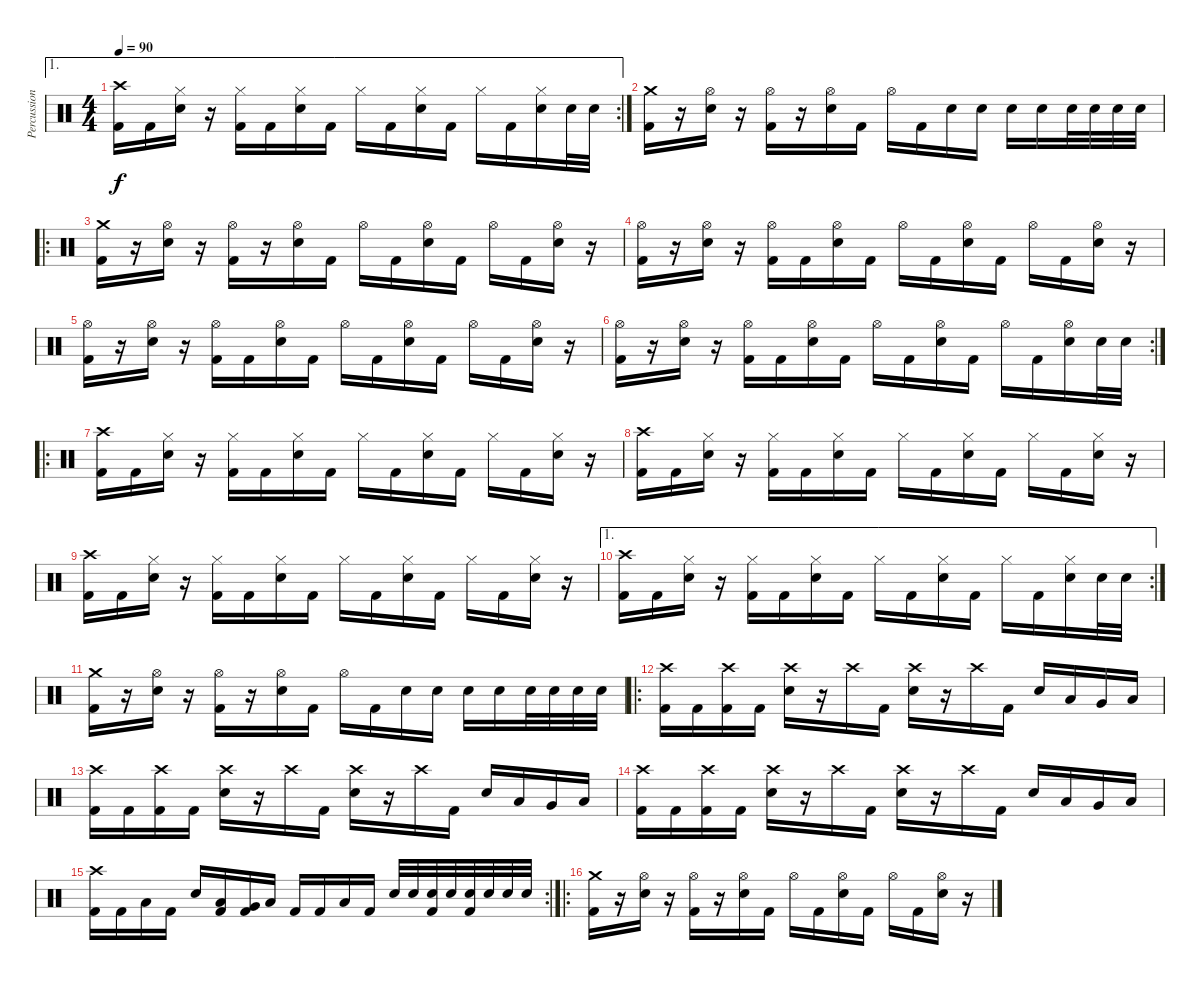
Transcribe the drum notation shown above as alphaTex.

\track ("Percussion" "Percussion") {instrument percussion}
\staff {score}
\articulation defaults
\ae 1
\rc 2
\ts (4 4)
\tempo 90
\clef neutral
\ks c
("Kick (hit) 2" "Crash high (hit)").16{dy f} "Kick (hit) 2".16 ("Snare (hit) 2" "Hi-Hat (closed)").16 r.16 ("Kick (hit) 2" "Hi-Hat (closed)").16 "Kick (hit) 2".16 ("Snare (hit) 2" "Hi-Hat (closed)").16 "Kick (hit) 2".16 "Hi-Hat (closed)".16 "Kick (hit) 2".16 ("Snare (hit) 2" "Hi-Hat (closed)").16 "Kick (hit) 2".16 "Hi-Hat (closed)".16 "Kick (hit) 2".16 ("Snare (hit) 2" "Hi-Hat (closed)").16 "Snare (hit) 2".32 "Snare (hit) 2".32 |
("Kick (hit) 2" "Crash medium (hit)").16 r.16 ("Snare (hit) 2" "Hi-Hat (open)").16 r.16 ("Kick (hit) 2" "Hi-Hat (open)").16 r.16 ("Snare (hit) 2" "Hi-Hat (open)").16 "Kick (hit) 2".16 "Hi-Hat (open)".16 "Kick (hit) 2".16 "Snare (hit) 2".16 "Snare (hit) 2".16 "Snare (hit) 2".16 "Snare (hit) 2".16 "Snare (hit) 2".32 "Snare (hit) 2".32 "Snare (hit) 2".32 "Snare (hit) 2".32 |
\ro
("Kick (hit) 2" "Crash medium (hit)").16 r.16 ("Snare (hit) 2" "Hi-Hat (open)").16 r.16 ("Kick (hit) 2" "Hi-Hat (open)").16 r.16 ("Snare (hit) 2" "Hi-Hat (open)").16 "Kick (hit) 2".16 "Hi-Hat (open)".16 "Kick (hit) 2".16 ("Snare (hit) 2" "Hi-Hat (open)").16 "Kick (hit) 2".16 "Hi-Hat (open)".16 "Kick (hit) 2".16 ("Snare (hit) 2" "Hi-Hat (open)").16 r.16 |
("Kick (hit) 2" "Hi-Hat (open)").16 r.16 ("Snare (hit) 2" "Hi-Hat (open)").16 r.16 ("Kick (hit) 2" "Hi-Hat (open)").16 "Kick (hit) 2".16 ("Snare (hit) 2" "Hi-Hat (open)").16 "Kick (hit) 2".16 "Hi-Hat (open)".16 "Kick (hit) 2".16 ("Snare (hit) 2" "Hi-Hat (open)").16 "Kick (hit) 2".16 "Hi-Hat (open)".16 "Kick (hit) 2".16 ("Snare (hit) 2" "Hi-Hat (open)").16 r.16 |
("Kick (hit) 2" "Hi-Hat (open)").16 r.16 ("Snare (hit) 2" "Hi-Hat (open)").16 r.16 ("Kick (hit) 2" "Hi-Hat (open)").16 "Kick (hit) 2".16 ("Snare (hit) 2" "Hi-Hat (open)").16 "Kick (hit) 2".16 "Hi-Hat (open)".16 "Kick (hit) 2".16 ("Snare (hit) 2" "Hi-Hat (open)").16 "Kick (hit) 2".16 "Hi-Hat (open)".16 "Kick (hit) 2".16 ("Snare (hit) 2" "Hi-Hat (open)").16 r.16 |
\rc 2
("Kick (hit) 2" "Hi-Hat (open)").16 r.16 ("Snare (hit) 2" "Hi-Hat (open)").16 r.16 ("Kick (hit) 2" "Hi-Hat (open)").16 "Kick (hit) 2".16 ("Snare (hit) 2" "Hi-Hat (open)").16 "Kick (hit) 2".16 "Hi-Hat (open)".16 "Kick (hit) 2".16 ("Snare (hit) 2" "Hi-Hat (open)").16 "Kick (hit) 2".16 "Hi-Hat (open)".16 "Kick (hit) 2".16 ("Snare (hit) 2" "Hi-Hat (open)").16 "Snare (hit) 2".32 "Snare (hit) 2".32 |
\ro
("Kick (hit) 2" "Crash high (hit)").16 "Kick (hit) 2".16 ("Snare (hit) 2" "Hi-Hat (closed)").16 r.16 ("Kick (hit) 2" "Hi-Hat (closed)").16 "Kick (hit) 2".16 ("Snare (hit) 2" "Hi-Hat (closed)").16 "Kick (hit) 2".16 "Hi-Hat (closed)".16 "Kick (hit) 2".16 ("Snare (hit) 2" "Hi-Hat (closed)").16 "Kick (hit) 2".16 "Hi-Hat (closed)".16 "Kick (hit) 2".16 ("Snare (hit) 2" "Hi-Hat (closed)").16 r.16 |
("Kick (hit) 2" "Crash high (hit)").16 "Kick (hit) 2".16 ("Snare (hit) 2" "Hi-Hat (closed)").16 r.16 ("Kick (hit) 2" "Hi-Hat (closed)").16 "Kick (hit) 2".16 ("Snare (hit) 2" "Hi-Hat (closed)").16 "Kick (hit) 2".16 "Hi-Hat (closed)".16 "Kick (hit) 2".16 ("Snare (hit) 2" "Hi-Hat (closed)").16 "Kick (hit) 2".16 "Hi-Hat (closed)".16 "Kick (hit) 2".16 ("Snare (hit) 2" "Hi-Hat (closed)").16 r.16 |
("Kick (hit) 2" "Crash high (hit)").16 "Kick (hit) 2".16 ("Snare (hit) 2" "Hi-Hat (closed)").16 r.16 ("Kick (hit) 2" "Hi-Hat (closed)").16 "Kick (hit) 2".16 ("Snare (hit) 2" "Hi-Hat (closed)").16 "Kick (hit) 2".16 "Hi-Hat (closed)".16 "Kick (hit) 2".16 ("Snare (hit) 2" "Hi-Hat (closed)").16 "Kick (hit) 2".16 "Hi-Hat (closed)".16 "Kick (hit) 2".16 ("Snare (hit) 2" "Hi-Hat (closed)").16 r.16 |
\ae 1
\rc 2
("Kick (hit) 2" "Crash high (hit)").16 "Kick (hit) 2".16 ("Snare (hit) 2" "Hi-Hat (closed)").16 r.16 ("Kick (hit) 2" "Hi-Hat (closed)").16 "Kick (hit) 2".16 ("Snare (hit) 2" "Hi-Hat (closed)").16 "Kick (hit) 2".16 "Hi-Hat (closed)".16 "Kick (hit) 2".16 ("Snare (hit) 2" "Hi-Hat (closed)").16 "Kick (hit) 2".16 "Hi-Hat (closed)".16 "Kick (hit) 2".16 ("Snare (hit) 2" "Hi-Hat (closed)").16 "Snare (hit) 2".32 "Snare (hit) 2".32 |
("Kick (hit) 2" "Crash medium (hit)").16 r.16 ("Snare (hit) 2" "Hi-Hat (open)").16 r.16 ("Kick (hit) 2" "Hi-Hat (open)").16 r.16 ("Snare (hit) 2" "Hi-Hat (open)").16 "Kick (hit) 2".16 "Hi-Hat (open)".16 "Kick (hit) 2".16 "Snare (hit) 2".16 "Snare (hit) 2".16 "Snare (hit) 2".16 "Snare (hit) 2".16 "Snare (hit) 2".32 "Snare (hit) 2".32 "Snare (hit) 2".32 "Snare (hit) 2".32 |
\ro
("Kick (hit) 2" "Crash high (hit)").16 "Kick (hit) 2".16 ("Kick (hit) 2" "Crash high (hit)").16 "Kick (hit) 2".16 ("Snare (hit) 2" "Crash high (hit)").16 r.16 "Crash high (hit)".16 "Kick (hit) 2".16 ("Snare (hit) 2" "Crash high (hit)").16 r.16 "Crash high (hit)".16 "Kick (hit) 2".16 "Snare (hit) 2".16 "Low Tom (hit)".16 "Very Low Tom (hit)".16 "Low Floor Tom (hit)".16 |
("Kick (hit) 2" "Crash high (hit)").16 "Kick (hit) 2".16 ("Kick (hit) 2" "Crash high (hit)").16 "Kick (hit) 2".16 ("Snare (hit) 2" "Crash high (hit)").16 r.16 "Crash high (hit)".16 "Kick (hit) 2".16 ("Snare (hit) 2" "Crash high (hit)").16 r.16 "Crash high (hit)".16 "Kick (hit) 2".16 "Snare (hit) 2".16 "Low Tom (hit)".16 "Very Low Tom (hit)".16 "Low Floor Tom (hit)".16 |
("Kick (hit) 2" "Crash high (hit)").16 "Kick (hit) 2".16 ("Kick (hit) 2" "Crash high (hit)").16 "Kick (hit) 2".16 ("Snare (hit) 2" "Crash high (hit)").16 r.16 "Crash high (hit)".16 "Kick (hit) 2".16 ("Snare (hit) 2" "Crash high (hit)").16 r.16 "Crash high (hit)".16 "Kick (hit) 2".16 "Snare (hit) 2".16 "Low Tom (hit)".16 "Very Low Tom (hit)".16 "Low Floor Tom (hit)".16 |
\rc 2
("Kick (hit) 2" "Crash high (hit)").16 "Kick (hit) 2".16 "Low Floor Tom (hit)".16 "Kick (hit) 2".16 "Snare (hit) 2".16 ("Kick (hit) 2" "Low Floor Tom (hit)").16 ("Kick (hit) 2" "Very Low Tom (hit)").16 "Low Tom (hit)".16 "Kick (hit) 2".16 "Kick (hit) 2".16 "Low Floor Tom (hit)".16 "Kick (hit) 2".16 "Snare (hit) 2".32 "Snare (hit) 2".32 ("Kick (hit) 2" "Snare (hit) 2").32 "Snare (hit) 2".32 ("Kick (hit) 2" "Snare (hit) 2").32 "Snare (hit) 2".32 "Snare (hit) 2".32 "Snare (hit) 2".32 |
\ro
("Kick (hit) 2" "Crash medium (hit)").16 r.16 ("Snare (hit) 2" "Hi-Hat (open)").16 r.16 ("Kick (hit) 2" "Hi-Hat (open)").16 r.16 ("Snare (hit) 2" "Hi-Hat (open)").16 "Kick (hit) 2".16 "Hi-Hat (open)".16 "Kick (hit) 2".16 ("Snare (hit) 2" "Hi-Hat (open)").16 "Kick (hit) 2".16 "Hi-Hat (open)".16 "Kick (hit) 2".16 ("Snare (hit) 2" "Hi-Hat (open)").16 r.16
